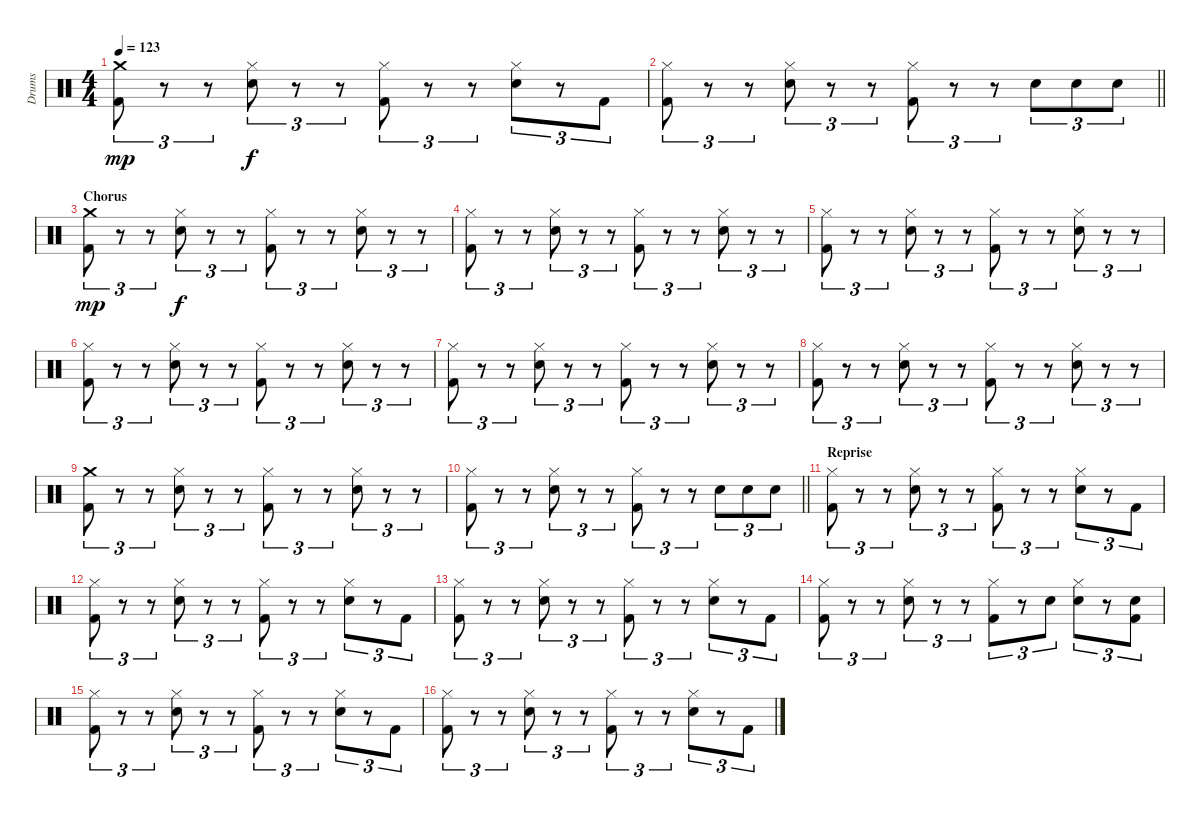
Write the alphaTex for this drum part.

\track ("Drums" "Drums") {instrument percussion}
\staff {score}
\articulation defaults
\ts (4 4)
\tempo 123
\clef neutral
\ks c
("Crash medium (hit)" "Kick (hit) 2").8{tu (3 2) dy mp} r.8{tu (3 2)} r.8{tu (3 2)} ("Hi-Hat (closed)" "Snare (hit) 2").8{tu (3 2) dy f} r.8{tu (3 2)} r.8{tu (3 2)} ("Hi-Hat (closed)" "Kick (hit) 2").8{tu (3 2)} r.8{tu (3 2)} r.8{tu (3 2)} ("Hi-Hat (closed)" "Snare (hit) 2").8{tu (3 2)} r.8{tu (3 2)} "Kick (hit) 2".8{tu (3 2)} |
\barLineRight lightlight
("Hi-Hat (closed)" "Kick (hit) 2").8{tu (3 2)} r.8{tu (3 2)} r.8{tu (3 2)} ("Hi-Hat (closed)" "Snare (hit) 2").8{tu (3 2)} r.8{tu (3 2)} r.8{tu (3 2)} ("Hi-Hat (closed)" "Kick (hit) 2").8{tu (3 2)} r.8{tu (3 2)} r.8{tu (3 2)} "Snare (hit) 2".8{tu (3 2)} "Snare (hit) 2".8{tu (3 2)} "Snare (hit) 2".8{tu (3 2)} |
\section ("" "Chorus")
("Crash medium (hit)" "Kick (hit) 2").8{tu (3 2) dy mp} r.8{tu (3 2)} r.8{tu (3 2)} ("Hi-Hat (closed)" "Snare (hit) 2").8{tu (3 2) dy f} r.8{tu (3 2)} r.8{tu (3 2)} ("Hi-Hat (closed)" "Kick (hit) 2").8{tu (3 2)} r.8{tu (3 2)} r.8{tu (3 2)} ("Hi-Hat (closed)" "Snare (hit) 2").8{tu (3 2)} r.8{tu (3 2)} r.8{tu (3 2)} |
("Hi-Hat (closed)" "Kick (hit) 2").8{tu (3 2)} r.8{tu (3 2)} r.8{tu (3 2)} ("Hi-Hat (closed)" "Snare (hit) 2").8{tu (3 2)} r.8{tu (3 2)} r.8{tu (3 2)} ("Hi-Hat (closed)" "Kick (hit) 2").8{tu (3 2)} r.8{tu (3 2)} r.8{tu (3 2)} ("Hi-Hat (closed)" "Snare (hit) 2").8{tu (3 2)} r.8{tu (3 2)} r.8{tu (3 2)} |
("Hi-Hat (closed)" "Kick (hit) 2").8{tu (3 2)} r.8{tu (3 2)} r.8{tu (3 2)} ("Hi-Hat (closed)" "Snare (hit) 2").8{tu (3 2)} r.8{tu (3 2)} r.8{tu (3 2)} ("Hi-Hat (closed)" "Kick (hit) 2").8{tu (3 2)} r.8{tu (3 2)} r.8{tu (3 2)} ("Hi-Hat (closed)" "Snare (hit) 2").8{tu (3 2)} r.8{tu (3 2)} r.8{tu (3 2)} |
("Hi-Hat (closed)" "Kick (hit) 2").8{tu (3 2)} r.8{tu (3 2)} r.8{tu (3 2)} ("Hi-Hat (closed)" "Snare (hit) 2").8{tu (3 2)} r.8{tu (3 2)} r.8{tu (3 2)} ("Hi-Hat (closed)" "Kick (hit) 2").8{tu (3 2)} r.8{tu (3 2)} r.8{tu (3 2)} ("Hi-Hat (closed)" "Snare (hit) 2").8{tu (3 2)} r.8{tu (3 2)} r.8{tu (3 2)} |
("Hi-Hat (closed)" "Kick (hit) 2").8{tu (3 2)} r.8{tu (3 2)} r.8{tu (3 2)} ("Hi-Hat (closed)" "Snare (hit) 2").8{tu (3 2)} r.8{tu (3 2)} r.8{tu (3 2)} ("Hi-Hat (closed)" "Kick (hit) 2").8{tu (3 2)} r.8{tu (3 2)} r.8{tu (3 2)} ("Hi-Hat (closed)" "Snare (hit) 2").8{tu (3 2)} r.8{tu (3 2)} r.8{tu (3 2)} |
("Hi-Hat (closed)" "Kick (hit) 2").8{tu (3 2)} r.8{tu (3 2)} r.8{tu (3 2)} ("Hi-Hat (closed)" "Snare (hit) 2").8{tu (3 2)} r.8{tu (3 2)} r.8{tu (3 2)} ("Hi-Hat (closed)" "Kick (hit) 2").8{tu (3 2)} r.8{tu (3 2)} r.8{tu (3 2)} ("Hi-Hat (closed)" "Snare (hit) 2").8{tu (3 2)} r.8{tu (3 2)} r.8{tu (3 2)} |
("Crash medium (hit)" "Kick (hit) 2").8{tu (3 2)} r.8{tu (3 2)} r.8{tu (3 2)} ("Hi-Hat (closed)" "Snare (hit) 2").8{tu (3 2)} r.8{tu (3 2)} r.8{tu (3 2)} ("Hi-Hat (closed)" "Kick (hit) 2").8{tu (3 2)} r.8{tu (3 2)} r.8{tu (3 2)} ("Hi-Hat (closed)" "Snare (hit) 2").8{tu (3 2)} r.8{tu (3 2)} r.8{tu (3 2)} |
\barLineRight lightlight
("Hi-Hat (closed)" "Kick (hit) 2").8{tu (3 2)} r.8{tu (3 2)} r.8{tu (3 2)} ("Hi-Hat (closed)" "Snare (hit) 2").8{tu (3 2)} r.8{tu (3 2)} r.8{tu (3 2)} ("Hi-Hat (closed)" "Kick (hit) 2").8{tu (3 2)} r.8{tu (3 2)} r.8{tu (3 2)} "Snare (hit) 2".8{tu (3 2)} "Snare (hit) 2".8{tu (3 2)} "Snare (hit) 2".8{tu (3 2)} |
\section ("" "Reprise")
("Hi-Hat (closed)" "Kick (hit) 2").8{tu (3 2)} r.8{tu (3 2)} r.8{tu (3 2)} ("Hi-Hat (closed)" "Snare (hit) 2").8{tu (3 2)} r.8{tu (3 2)} r.8{tu (3 2)} ("Hi-Hat (closed)" "Kick (hit) 2").8{tu (3 2)} r.8{tu (3 2)} r.8{tu (3 2)} ("Hi-Hat (closed)" "Snare (hit) 2").8{tu (3 2)} r.8{tu (3 2)} "Kick (hit) 2".8{tu (3 2)} |
("Hi-Hat (closed)" "Kick (hit) 2").8{tu (3 2)} r.8{tu (3 2)} r.8{tu (3 2)} ("Hi-Hat (closed)" "Snare (hit) 2").8{tu (3 2)} r.8{tu (3 2)} r.8{tu (3 2)} ("Hi-Hat (closed)" "Kick (hit) 2").8{tu (3 2)} r.8{tu (3 2)} r.8{tu (3 2)} ("Hi-Hat (closed)" "Snare (hit) 2").8{tu (3 2)} r.8{tu (3 2)} "Kick (hit) 2".8{tu (3 2)} |
("Hi-Hat (closed)" "Kick (hit) 2").8{tu (3 2)} r.8{tu (3 2)} r.8{tu (3 2)} ("Hi-Hat (closed)" "Snare (hit) 2").8{tu (3 2)} r.8{tu (3 2)} r.8{tu (3 2)} ("Hi-Hat (closed)" "Kick (hit) 2").8{tu (3 2)} r.8{tu (3 2)} r.8{tu (3 2)} ("Hi-Hat (closed)" "Snare (hit) 2").8{tu (3 2)} r.8{tu (3 2)} "Kick (hit) 2".8{tu (3 2)} |
("Hi-Hat (closed)" "Kick (hit) 2").8{tu (3 2)} r.8{tu (3 2)} r.8{tu (3 2)} ("Hi-Hat (closed)" "Snare (hit) 2").8{tu (3 2)} r.8{tu (3 2)} r.8{tu (3 2)} ("Hi-Hat (closed)" "Kick (hit) 2").8{tu (3 2)} r.8{tu (3 2)} "Snare (hit) 2".8{tu (3 2)} ("Hi-Hat (closed)" "Snare (hit) 2").8{tu (3 2)} r.8{tu (3 2)} ("Snare (hit) 2" "Kick (hit) 2").8{tu (3 2)} |
("Hi-Hat (closed)" "Kick (hit) 2").8{tu (3 2)} r.8{tu (3 2)} r.8{tu (3 2)} ("Hi-Hat (closed)" "Snare (hit) 2").8{tu (3 2)} r.8{tu (3 2)} r.8{tu (3 2)} ("Hi-Hat (closed)" "Kick (hit) 2").8{tu (3 2)} r.8{tu (3 2)} r.8{tu (3 2)} ("Hi-Hat (closed)" "Snare (hit) 2").8{tu (3 2)} r.8{tu (3 2)} "Kick (hit) 2".8{tu (3 2)} |
("Hi-Hat (closed)" "Kick (hit) 2").8{tu (3 2)} r.8{tu (3 2)} r.8{tu (3 2)} ("Hi-Hat (closed)" "Snare (hit) 2").8{tu (3 2)} r.8{tu (3 2)} r.8{tu (3 2)} ("Hi-Hat (closed)" "Kick (hit) 2").8{tu (3 2)} r.8{tu (3 2)} r.8{tu (3 2)} ("Hi-Hat (closed)" "Snare (hit) 2").8{tu (3 2)} r.8{tu (3 2)} "Kick (hit) 2".8{tu (3 2)}
